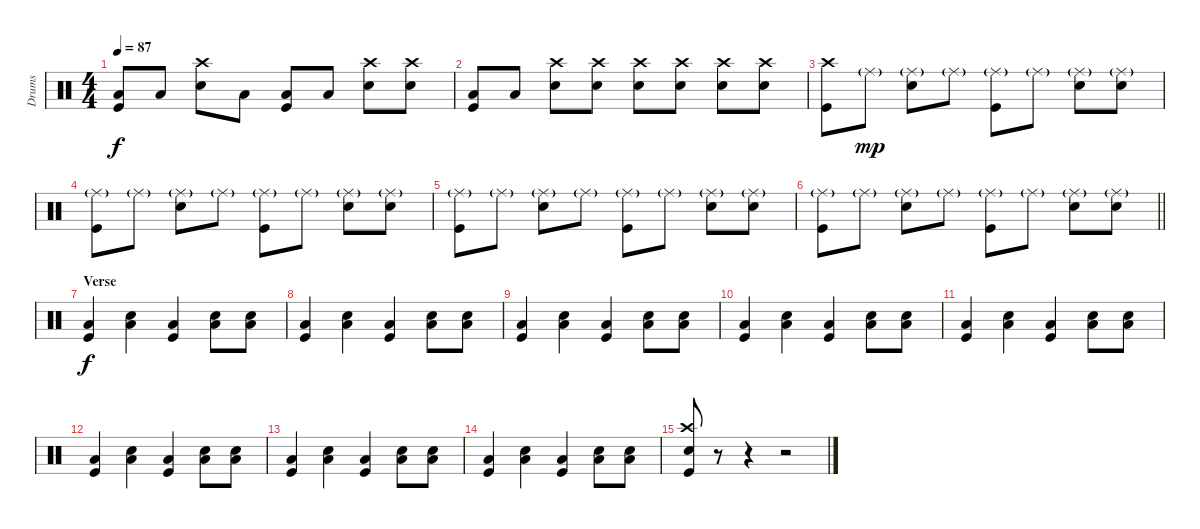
\track ("Drums" "Drums") {instrument percussion}
\staff {score}
\articulation defaults
\ts (4 4)
\tempo 87
\clef neutral
\ks c
("Low Floor Tom (hit)" "Kick (hit)").8{dy f} "Low Floor Tom (hit)".8 ("Crash high (hit)" "Snare (hit) 2").8 "Low Floor Tom (hit)".8 ("Low Floor Tom (hit)" "Kick (hit)").8 "Low Floor Tom (hit)".8 ("Crash high (hit)" "Snare (hit) 2").8 ("Crash high (hit)" "Snare (hit) 2").8 |
("Low Floor Tom (hit)" "Kick (hit)").8 "Low Floor Tom (hit)".8 ("Crash high (hit)" "Snare (hit) 2").8 ("Crash high (hit)" "Snare (hit) 2").8 ("Crash high (hit)" "Snare (hit) 2").8 ("Crash high (hit)" "Snare (hit) 2").8 ("Crash high (hit)" "Snare (hit) 2").8 ("Crash high (hit)" "Snare (hit) 2").8 |
("Crash high (hit)" "Kick (hit)").8 "Ride (middle)"{g}.8{dy mp} ("Ride (middle)"{g} "Snare (hit) 2").8 "Ride (middle)"{g}.8 ("Ride (middle)"{g} "Kick (hit)").8 "Ride (middle)"{g}.8 ("Ride (middle)"{g} "Snare (hit) 2").8 ("Ride (middle)"{g} "Snare (hit) 2").8 |
("Ride (middle)"{g} "Kick (hit)").8 "Ride (middle)"{g}.8 ("Ride (middle)"{g} "Snare (hit) 2").8 "Ride (middle)"{g}.8 ("Ride (middle)"{g} "Kick (hit)").8 "Ride (middle)"{g}.8 ("Ride (middle)"{g} "Snare (hit) 2").8 ("Ride (middle)"{g} "Snare (hit) 2").8 |
("Ride (middle)"{g} "Kick (hit)").8 "Ride (middle)"{g}.8 ("Ride (middle)"{g} "Snare (hit) 2").8 "Ride (middle)"{g}.8 ("Ride (middle)"{g} "Kick (hit)").8 "Ride (middle)"{g}.8 ("Ride (middle)"{g} "Snare (hit) 2").8 ("Ride (middle)"{g} "Snare (hit) 2").8 |
\barLineRight lightlight
("Ride (middle)"{g} "Kick (hit)").8 "Ride (middle)"{g}.8 ("Ride (middle)"{g} "Snare (hit) 2").8 "Ride (middle)"{g}.8 ("Ride (middle)"{g} "Kick (hit)").8 "Ride (middle)"{g}.8 ("Ride (middle)"{g} "Snare (hit) 2").8 ("Ride (middle)"{g} "Snare (hit) 2").8 |
\section ("" "Verse")
("Low Floor Tom (hit)" "Kick (hit)").4{dy f} ("Snare (hit) 2" "Low Floor Tom (hit)").4 ("Low Floor Tom (hit)" "Kick (hit)").4 ("Snare (hit) 2" "Low Floor Tom (hit)").8 ("Snare (hit) 2" "Low Floor Tom (hit)").8 |
("Low Floor Tom (hit)" "Kick (hit)").4 ("Snare (hit) 2" "Low Floor Tom (hit)").4 ("Low Floor Tom (hit)" "Kick (hit)").4 ("Snare (hit) 2" "Low Floor Tom (hit)").8 ("Snare (hit) 2" "Low Floor Tom (hit)").8 |
("Low Floor Tom (hit)" "Kick (hit)").4 ("Snare (hit) 2" "Low Floor Tom (hit)").4 ("Low Floor Tom (hit)" "Kick (hit)").4 ("Snare (hit) 2" "Low Floor Tom (hit)").8 ("Snare (hit) 2" "Low Floor Tom (hit)").8 |
("Low Floor Tom (hit)" "Kick (hit)").4 ("Snare (hit) 2" "Low Floor Tom (hit)").4 ("Low Floor Tom (hit)" "Kick (hit)").4 ("Snare (hit) 2" "Low Floor Tom (hit)").8 ("Snare (hit) 2" "Low Floor Tom (hit)").8 |
("Low Floor Tom (hit)" "Kick (hit)").4 ("Snare (hit) 2" "Low Floor Tom (hit)").4 ("Low Floor Tom (hit)" "Kick (hit)").4 ("Snare (hit) 2" "Low Floor Tom (hit)").8 ("Snare (hit) 2" "Low Floor Tom (hit)").8 |
("Low Floor Tom (hit)" "Kick (hit)").4 ("Snare (hit) 2" "Low Floor Tom (hit)").4 ("Low Floor Tom (hit)" "Kick (hit)").4 ("Snare (hit) 2" "Low Floor Tom (hit)").8 ("Snare (hit) 2" "Low Floor Tom (hit)").8 |
("Low Floor Tom (hit)" "Kick (hit)").4 ("Snare (hit) 2" "Low Floor Tom (hit)").4 ("Low Floor Tom (hit)" "Kick (hit)").4 ("Snare (hit) 2" "Low Floor Tom (hit)").8 ("Snare (hit) 2" "Low Floor Tom (hit)").8 |
("Low Floor Tom (hit)" "Kick (hit)").4 ("Snare (hit) 2" "Low Floor Tom (hit)").4 ("Low Floor Tom (hit)" "Kick (hit)").4 ("Snare (hit) 2" "Low Floor Tom (hit)").8 ("Snare (hit) 2" "Low Floor Tom (hit)").8 |
("Crash high (hit)" "Snare (hit) 2" "Kick (hit)").8 r.8 r.4 r.2
